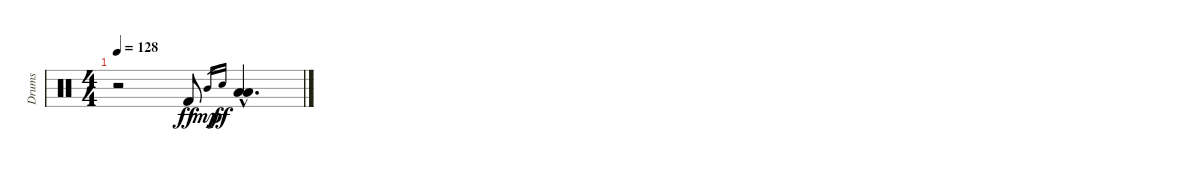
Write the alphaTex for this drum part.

\track ("Drums" "Drums") {instrument percussion}
\staff {score}
\articulation defaults
\ts (4 4)
\tempo 128
\clef neutral
\ks c
r.2{dy ff} "Kick (hit) 2".8 "Mid Tom (hit)".16{gr dy mp} "Electric Snare (hit)".16{gr dy ff} ("Low Tom (hit)"{hac} "Low Tom (hit)"{hac}).4{d}
